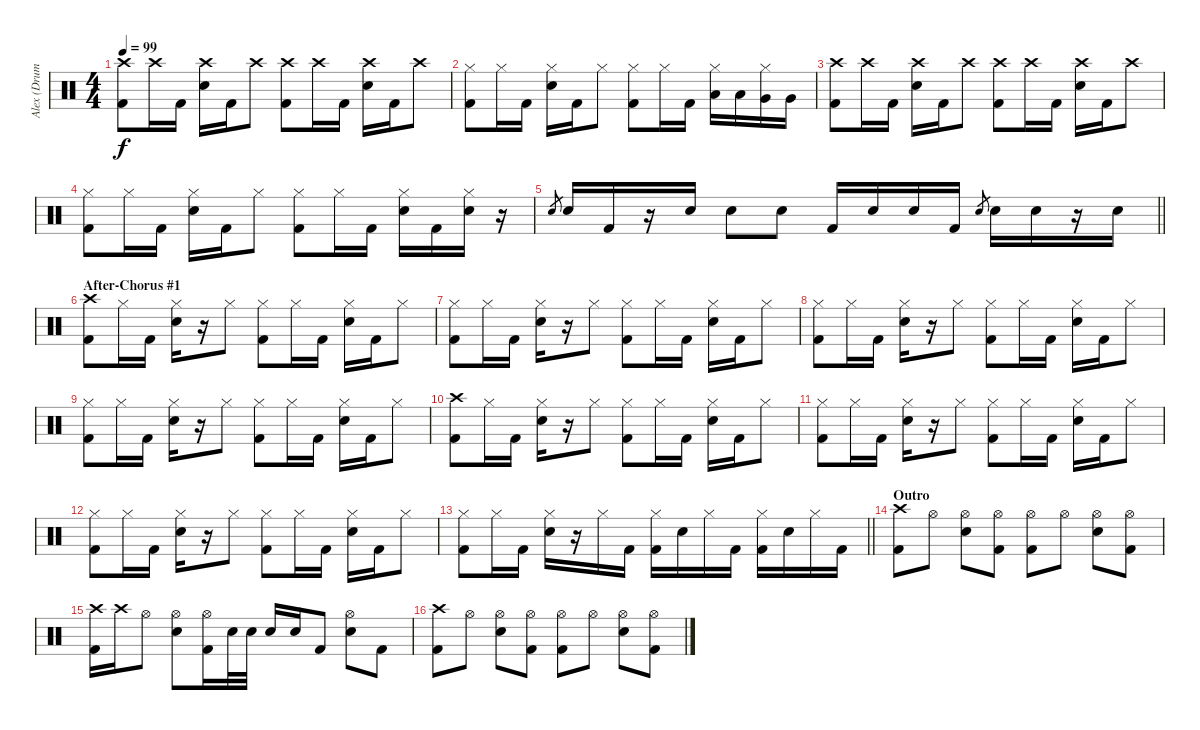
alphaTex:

\track ("Alex (Drums)" "Alex (Drum") {instrument percussion}
\staff {score}
\articulation defaults
\ts (4 4)
\tempo 99
\clef neutral
\ks c
("Crash high (hit)" "Kick (hit) 2").8{dy f} "Crash high (hit)".16 "Kick (hit) 2".16 ("Crash high (hit)" "Snare (hit) 2").16 "Kick (hit) 2".16 "Crash high (hit)".8 ("Crash high (hit)" "Kick (hit) 2").8 "Crash high (hit)".16 "Kick (hit) 2".16 ("Crash high (hit)" "Snare (hit) 2").16 "Kick (hit) 2".16 "Crash high (hit)".8 |
("Hi-Hat (closed)" "Kick (hit) 2").8 "Hi-Hat (closed)".16 "Kick (hit) 2".16 ("Hi-Hat (closed)" "Snare (hit) 2").16 "Kick (hit) 2".16 "Hi-Hat (closed)".8 ("Hi-Hat (closed)" "Kick (hit) 2").8 "Hi-Hat (closed)".16 "Kick (hit) 2".16 ("Hi-Hat (closed)" "Low Tom (hit)").16 "Low Tom (hit)".16 ("Hi-Hat (closed)" "Very Low Tom (hit)").16 "Very Low Tom (hit)".16 |
("Crash high (hit)" "Kick (hit) 2").8 "Crash high (hit)".16 "Kick (hit) 2".16 ("Crash high (hit)" "Snare (hit) 2").16 "Kick (hit) 2".16 "Crash high (hit)".8 ("Crash high (hit)" "Kick (hit) 2").8 "Crash high (hit)".16 "Kick (hit) 2".16 ("Crash high (hit)" "Snare (hit) 2").16 "Kick (hit) 2".16 "Crash high (hit)".8 |
("Hi-Hat (closed)" "Kick (hit) 2").8 "Hi-Hat (closed)".16 "Kick (hit) 2".16 ("Hi-Hat (closed)" "Snare (hit) 2").16 "Kick (hit) 2".16 "Hi-Hat (closed)".8 ("Hi-Hat (closed)" "Kick (hit) 2").8 "Hi-Hat (closed)".16 "Kick (hit) 2".16 ("Hi-Hat (closed)" "Snare (hit) 2").16 "Kick (hit) 2".16 ("Hi-Hat (closed)" "Snare (hit) 2").16 r.16 |
\barLineRight lightlight "Snare (hit) 2".8{gr} "Snare (hit) 2".16 "Kick (hit) 2".16
r.16 "Snare (hit) 2".16 "Snare (hit) 2".8 "Snare (hit) 2".8 "Kick (hit) 2".16 "Snare (hit) 2".16 "Snare (hit) 2".16 "Kick (hit) 2".16 "Snare (hit) 2".8{gr} "Snare (hit) 2".16 "Snare (hit) 2".16 r.16 "Snare (hit) 2".16 |
\section ("" "After-Chorus #1")
("Crash high (hit)" "Kick (hit) 2").8 "Hi-Hat (closed)".16 "Kick (hit) 2".16 ("Hi-Hat (closed)" "Snare (hit) 2").16 r.16 "Hi-Hat (closed)".8 ("Hi-Hat (closed)" "Kick (hit) 2").8 "Hi-Hat (closed)".16 "Kick (hit) 2".16 ("Hi-Hat (closed)" "Snare (hit) 2").16 "Kick (hit) 2".16 "Hi-Hat (closed)".8 |
("Hi-Hat (closed)" "Kick (hit) 2").8 "Hi-Hat (closed)".16 "Kick (hit) 2".16 ("Hi-Hat (closed)" "Snare (hit) 2").16 r.16 "Hi-Hat (closed)".8 ("Hi-Hat (closed)" "Kick (hit) 2").8 "Hi-Hat (closed)".16 "Kick (hit) 2".16 ("Hi-Hat (closed)" "Snare (hit) 2").16 "Kick (hit) 2".16 "Hi-Hat (closed)".8 |
("Hi-Hat (closed)" "Kick (hit) 2").8 "Hi-Hat (closed)".16 "Kick (hit) 2".16 ("Hi-Hat (closed)" "Snare (hit) 2").16 r.16 "Hi-Hat (closed)".8 ("Hi-Hat (closed)" "Kick (hit) 2").8 "Hi-Hat (closed)".16 "Kick (hit) 2".16 ("Hi-Hat (closed)" "Snare (hit) 2").16 "Kick (hit) 2".16 "Hi-Hat (closed)".8 |
("Hi-Hat (closed)" "Kick (hit) 2").8 "Hi-Hat (closed)".16 "Kick (hit) 2".16 ("Hi-Hat (closed)" "Snare (hit) 2").16 r.16 "Hi-Hat (closed)".8 ("Hi-Hat (closed)" "Kick (hit) 2").8 "Hi-Hat (closed)".16 "Kick (hit) 2".16 ("Hi-Hat (closed)" "Snare (hit) 2").16 "Kick (hit) 2".16 "Hi-Hat (closed)".8 |
("Crash high (hit)" "Kick (hit) 2").8 "Hi-Hat (closed)".16 "Kick (hit) 2".16 ("Hi-Hat (closed)" "Snare (hit) 2").16 r.16 "Hi-Hat (closed)".8 ("Hi-Hat (closed)" "Kick (hit) 2").8 "Hi-Hat (closed)".16 "Kick (hit) 2".16 ("Hi-Hat (closed)" "Snare (hit) 2").16 "Kick (hit) 2".16 "Hi-Hat (closed)".8 |
("Hi-Hat (closed)" "Kick (hit) 2").8 "Hi-Hat (closed)".16 "Kick (hit) 2".16 ("Hi-Hat (closed)" "Snare (hit) 2").16 r.16 "Hi-Hat (closed)".8 ("Hi-Hat (closed)" "Kick (hit) 2").8 "Hi-Hat (closed)".16 "Kick (hit) 2".16 ("Hi-Hat (closed)" "Snare (hit) 2").16 "Kick (hit) 2".16 "Hi-Hat (closed)".8 |
("Hi-Hat (closed)" "Kick (hit) 2").8 "Hi-Hat (closed)".16 "Kick (hit) 2".16 ("Hi-Hat (closed)" "Snare (hit) 2").16 r.16 "Hi-Hat (closed)".8 ("Hi-Hat (closed)" "Kick (hit) 2").8 "Hi-Hat (closed)".16 "Kick (hit) 2".16 ("Hi-Hat (closed)" "Snare (hit) 2").16 "Kick (hit) 2".16 "Hi-Hat (closed)".8 |
\barLineRight lightlight
("Hi-Hat (closed)" "Kick (hit) 2").8 "Hi-Hat (closed)".16 "Kick (hit) 2".16 ("Hi-Hat (closed)" "Snare (hit) 2").16 r.16 "Hi-Hat (closed)".16 "Kick (hit) 2".16 ("Hi-Hat (closed)" "Kick (hit) 2").16 "Snare (hit) 2".16 "Hi-Hat (closed)".16 "Kick (hit) 2".16 ("Hi-Hat (closed)" "Kick (hit) 2").16 "Snare (hit) 2".16 "Hi-Hat (closed)".16 "Kick (hit) 2".16 |
\section ("" "Outro")
("Crash high (hit)" "Kick (hit) 2").8 "Hi-Hat (open)".8 ("Hi-Hat (open)" "Snare (hit) 2").8 ("Hi-Hat (open)" "Kick (hit) 2").8 ("Hi-Hat (open)" "Kick (hit) 2").8 "Hi-Hat (open)".8 ("Hi-Hat (open)" "Snare (hit) 2").8 ("Hi-Hat (open)" "Kick (hit) 2").8 |
("Crash high (hit)" "Kick (hit) 2").16 "Crash high (hit)".16 "Hi-Hat (open)".8 ("Hi-Hat (open)" "Snare (hit) 2").8 ("Hi-Hat (open)" "Kick (hit) 2").16 "Snare (hit) 2".32 "Snare (hit) 2".32 "Snare (hit) 2".16 "Snare (hit) 2".16 "Kick (hit) 2".8 ("Hi-Hat (open)" "Snare (hit) 2").8 "Kick (hit) 2".8 |
("Crash high (hit)" "Kick (hit) 2").8 "Hi-Hat (open)".8 ("Hi-Hat (open)" "Snare (hit) 2").8 ("Hi-Hat (open)" "Kick (hit) 2").8 ("Hi-Hat (open)" "Kick (hit) 2").8 "Hi-Hat (open)".8 ("Hi-Hat (open)" "Snare (hit) 2").8 ("Hi-Hat (open)" "Kick (hit) 2").8
